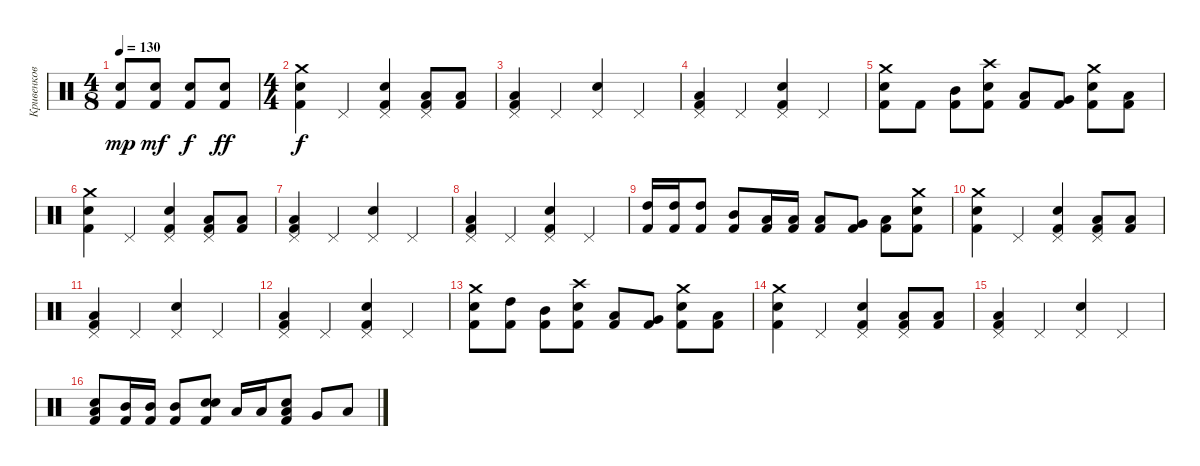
\track ("Кривенков Дмитрий" "Кривенков ") {instrument percussion}
\staff {score}
\articulation defaults
\ts (4 8)
\tempo 130
\clef neutral
\ks c
("Kick (hit) 2" "Electric Snare (hit)").8{dy mp} ("Kick (hit) 2" "Electric Snare (hit)").8{dy mf} ("Kick (hit) 2" "Electric Snare (hit)").8{dy f} ("Kick (hit) 2" "Electric Snare (hit)").8{dy ff} |
\ts (4 4)
("Kick (hit) 2" "Electric Snare (hit)" "Crash medium (hit)").4{dy f} "Pedal Hi-Hat (hit)".4 ("Pedal Hi-Hat (hit)" "Kick (hit) 2" "Electric Snare (hit)").4 ("Kick (hit) 2" "Pedal Hi-Hat (hit)" "Low Floor Tom (hit)").8 ("Low Floor Tom (hit)" "Kick (hit) 2").8 |
("Kick (hit) 2" "Pedal Hi-Hat (hit)" "Low Floor Tom (hit)").4 "Pedal Hi-Hat (hit)".4 ("Pedal Hi-Hat (hit)" "Electric Snare (hit)").4 "Pedal Hi-Hat (hit)".4 |
("Kick (hit) 2" "Pedal Hi-Hat (hit)" "Low Floor Tom (hit)").4 "Pedal Hi-Hat (hit)".4 ("Kick (hit) 2" "Pedal Hi-Hat (hit)" "Electric Snare (hit)").4 "Pedal Hi-Hat (hit)".4 |
("Crash medium (hit)" "Electric Snare (hit)" "Kick (hit) 2").8 "Kick (hit) 2".8 ("Mid Tom (hit)" "Kick (hit) 2").8 ("Crash high (hit)" "Electric Snare (hit)" "Kick (hit) 2").8 ("Kick (hit) 2" "Low Tom (hit)").8 ("Kick (hit) 2" "Very Low Tom (hit)").8 ("Crash medium (hit)" "Electric Snare (hit)" "Kick (hit) 2").8 ("Kick (hit) 2" "Low Floor Tom (hit)").8 |
("Kick (hit) 2" "Electric Snare (hit)" "Crash medium (hit)").4 "Pedal Hi-Hat (hit)".4 ("Pedal Hi-Hat (hit)" "Kick (hit) 2" "Electric Snare (hit)").4 ("Kick (hit) 2" "Pedal Hi-Hat (hit)" "Low Floor Tom (hit)").8 ("Low Floor Tom (hit)" "Kick (hit) 2").8 |
("Kick (hit) 2" "Pedal Hi-Hat (hit)" "Low Floor Tom (hit)").4 "Pedal Hi-Hat (hit)".4 ("Pedal Hi-Hat (hit)" "Electric Snare (hit)").4 "Pedal Hi-Hat (hit)".4 |
("Kick (hit) 2" "Pedal Hi-Hat (hit)" "Low Floor Tom (hit)").4 "Pedal Hi-Hat (hit)".4 ("Kick (hit) 2" "Pedal Hi-Hat (hit)" "Electric Snare (hit)").4 "Pedal Hi-Hat (hit)".4 |
("High Tom (hit)" "Kick (hit) 2").16 ("High Tom (hit)" "Kick (hit) 2").16 ("High Tom (hit)" "Kick (hit) 2").8 ("Mid Tom (hit)" "Kick (hit) 2").8 ("Low Tom (hit)" "Kick (hit) 2").16 ("Low Tom (hit)" "Kick (hit) 2").16 ("Low Tom (hit)" "Kick (hit) 2").8 ("Very Low Tom (hit)" "Kick (hit) 2").8 ("Low Floor Tom (hit)" "Kick (hit) 2").8 ("Electric Snare (hit)" "Kick (hit) 2" "Crash medium (hit)").8 |
("Kick (hit) 2" "Electric Snare (hit)" "Crash medium (hit)").4 "Pedal Hi-Hat (hit)".4 ("Pedal Hi-Hat (hit)" "Kick (hit) 2" "Electric Snare (hit)").4 ("Kick (hit) 2" "Pedal Hi-Hat (hit)" "Low Floor Tom (hit)").8 ("Low Floor Tom (hit)" "Kick (hit) 2").8 |
("Kick (hit) 2" "Pedal Hi-Hat (hit)" "Low Floor Tom (hit)").4 "Pedal Hi-Hat (hit)".4 ("Pedal Hi-Hat (hit)" "Electric Snare (hit)").4 "Pedal Hi-Hat (hit)".4 |
("Kick (hit) 2" "Pedal Hi-Hat (hit)" "Low Floor Tom (hit)").4 "Pedal Hi-Hat (hit)".4 ("Kick (hit) 2" "Pedal Hi-Hat (hit)" "Electric Snare (hit)").4 "Pedal Hi-Hat (hit)".4 |
("Crash medium (hit)" "Electric Snare (hit)" "Kick (hit) 2").8 ("Kick (hit) 2" "High Tom (hit)").8 ("Mid Tom (hit)" "Kick (hit) 2").8 ("Crash high (hit)" "Electric Snare (hit)" "Kick (hit) 2").8 ("Kick (hit) 2" "Low Tom (hit)").8 ("Kick (hit) 2" "Very Low Tom (hit)").8 ("Crash medium (hit)" "Electric Snare (hit)" "Kick (hit) 2").8 ("Kick (hit) 2" "Low Floor Tom (hit)").8 |
("Kick (hit) 2" "Electric Snare (hit)" "Crash medium (hit)").4 "Pedal Hi-Hat (hit)".4 ("Pedal Hi-Hat (hit)" "Kick (hit) 2" "Electric Snare (hit)").4 ("Kick (hit) 2" "Pedal Hi-Hat (hit)" "Low Floor Tom (hit)").8 ("Low Floor Tom (hit)" "Kick (hit) 2").8 |
("Kick (hit) 2" "Pedal Hi-Hat (hit)" "Low Floor Tom (hit)").4 "Pedal Hi-Hat (hit)".4 ("Pedal Hi-Hat (hit)" "Electric Snare (hit)").4 "Pedal Hi-Hat (hit)".4 |
("Electric Snare (hit)" "Kick (hit) 2" "Low Floor Tom (hit)").8 ("Kick (hit) 2" "Mid Tom (hit)").16 ("Kick (hit) 2" "Mid Tom (hit)").16 ("Kick (hit) 2" "Mid Tom (hit)").8 ("Snare (hit) 2" "Electric Snare (hit)" "Kick (hit) 2").8 "Low Tom (hit)".16 "Low Tom (hit)".16 ("Low Tom (hit)" "Kick (hit) 2" "Electric Snare (hit)").8 "Very Low Tom (hit)".8 "Low Floor Tom (hit)".8
